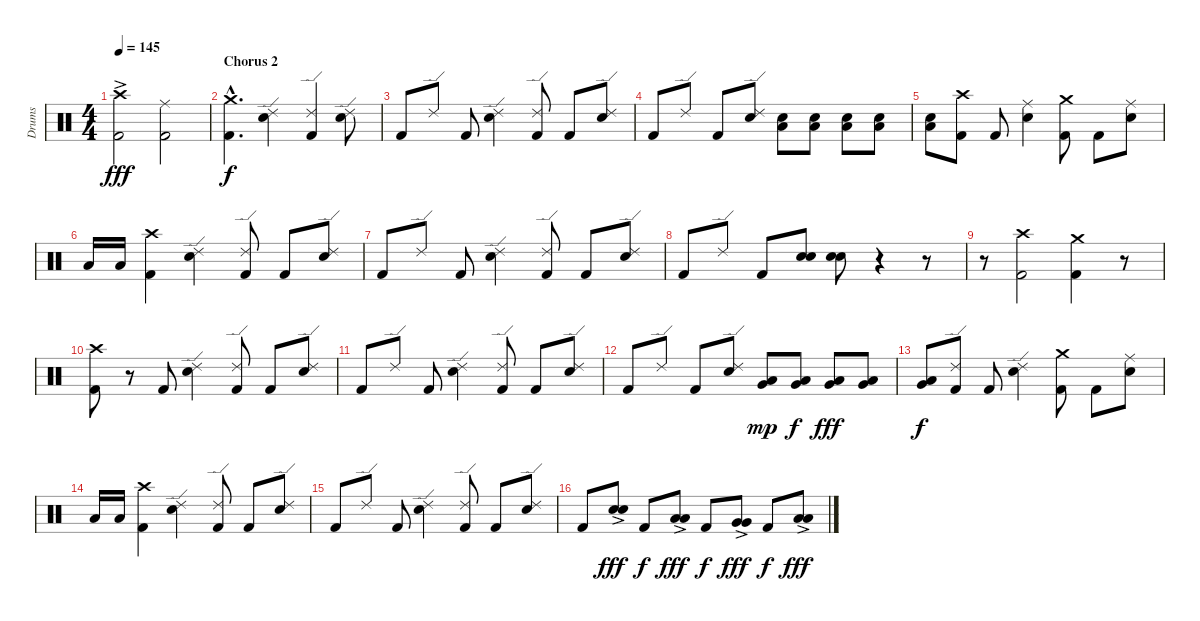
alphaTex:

\track ("Drums" "Drums") {instrument percussion}
\staff {score}
\articulation defaults
\ts (4 4)
\tempo 145
\clef neutral
\ks c
("Crash high (hit)"{ac} "Kick (hit) 2").2{dy fff} ("Ride (middle)" "Kick (hit) 2").2 |
\section ("" "Chorus 2")
("Crash medium (hit)"{hac} "Kick (hit) 2"{hac}).4{d dy f} ("Ride (edge) 2" "Snare (hit) 2").4 ("Ride (edge) 2" "Kick (hit) 2").4 ("Ride (edge) 2" "Snare (hit) 2").8 |
"Kick (hit) 2".8 "Ride (edge) 2".8 "Kick (hit) 2".8 ("Ride (edge) 2" "Snare (hit) 2").4 ("Ride (edge) 2" "Kick (hit) 2").8 "Kick (hit) 2".8 ("Ride (edge) 2" "Snare (hit) 2").8 |
"Kick (hit) 2".8 "Ride (edge) 2".8 "Kick (hit) 2".8 ("Ride (edge) 2" "Snare (hit) 2").8 ("Low Floor Tom (hit)" "Snare (hit) 2").8 ("Low Floor Tom (hit)" "Snare (hit) 2").8 ("Low Floor Tom (hit)" "Snare (hit) 2").8 ("Low Floor Tom (hit)" "Snare (hit) 2").8 |
("Low Floor Tom (hit)" "Snare (hit) 2").8 ("Crash high (hit)" "Kick (hit) 2").8 "Kick (hit) 2".8 ("Ride (middle)" "Snare (hit) 2").4 ("Crash medium (hit)" "Kick (hit) 2").8 "Kick (hit) 2".8 ("Ride (middle)" "Snare (hit) 2").8 |
"Low Floor Tom (hit)".16 "Low Floor Tom (hit)".16 ("Crash high (hit)" "Kick (hit) 2").4 ("Ride (edge) 2" "Snare (hit) 2").4 ("Ride (edge) 2" "Kick (hit) 2").8 "Kick (hit) 2".8 ("Ride (edge) 2" "Snare (hit) 2").8 |
"Kick (hit) 2".8 "Ride (edge) 2".8 "Kick (hit) 2".8 ("Ride (edge) 2" "Snare (hit) 2").4 ("Ride (edge) 2" "Kick (hit) 2").8 "Kick (hit) 2".8 ("Ride (edge) 2" "Snare (hit) 2").8 |
"Kick (hit) 2".8 "Ride (edge) 2".8 "Kick (hit) 2".8 ("Snare (hit) 2" "Snare (hit) 2").8 ("Snare (hit) 2" "Snare (hit) 2").8 r.4 r.8 |
r.8 ("Crash high (hit)" "Kick (hit) 2").2 ("Crash medium (hit)" "Kick (hit) 2").4 r.8 |
("Crash high (hit)" "Kick (hit) 2").8 r.8 "Kick (hit) 2".8 ("Ride (edge) 2" "Snare (hit) 2").4 ("Ride (edge) 2" "Kick (hit) 2").8 "Kick (hit) 2".8 ("Ride (edge) 2" "Snare (hit) 2").8 |
"Kick (hit) 2".8 "Ride (edge) 2".8 "Kick (hit) 2".8 ("Ride (edge) 2" "Snare (hit) 2").4 ("Ride (edge) 2" "Kick (hit) 2").8 "Kick (hit) 2".8 ("Ride (edge) 2" "Snare (hit) 2").8 |
"Kick (hit) 2".8 "Ride (edge) 2".8 "Kick (hit) 2".8 ("Ride (edge) 2" "Snare (hit) 2").8 ("Low Floor Tom (hit)" "Very Low Tom (hit)").8{dy mp} ("Low Floor Tom (hit)" "Very Low Tom (hit)").8{dy f} ("Low Floor Tom (hit)" "Very Low Tom (hit)").8{dy fff} ("Low Floor Tom (hit)" "Very Low Tom (hit)").8 |
("Low Floor Tom (hit)" "Very Low Tom (hit)").8{dy f} ("Ride (edge) 2" "Kick (hit) 2").8 "Kick (hit) 2".8 ("Ride (edge) 2" "Snare (hit) 2").4 ("Crash medium (hit)" "Kick (hit) 2").8 "Kick (hit) 2".8 ("Ride (middle)" "Snare (hit) 2").8 |
"Low Floor Tom (hit)".16 "Low Floor Tom (hit)".16 ("Crash high (hit)" "Kick (hit) 2").4 ("Ride (edge) 2" "Snare (hit) 2").4 ("Ride (edge) 2" "Kick (hit) 2").8 "Kick (hit) 2".8 ("Ride (edge) 2" "Snare (hit) 2").8 |
"Kick (hit) 2".8 "Ride (edge) 2".8 "Kick (hit) 2".8 ("Ride (edge) 2" "Snare (hit) 2").4 ("Ride (edge) 2" "Kick (hit) 2").8 "Kick (hit) 2".8 ("Ride (edge) 2" "Snare (hit) 2").8 |
"Kick (hit) 2".8 ("Snare (hit) 2"{ac} "Snare (hit) 2"{ac}).8{dy fff} "Kick (hit) 2".8{dy f} ("Low Tom (hit)"{ac} "Low Tom (hit)"{ac}).8{dy fff} "Kick (hit) 2".8{dy f} ("Very Low Tom (hit)"{ac} "Very Low Tom (hit)"{ac}).8{dy fff} "Kick (hit) 2".8{dy f} ("Low Floor Tom (hit)"{ac} "Low Floor Tom (hit)"{ac}).8{dy fff}
